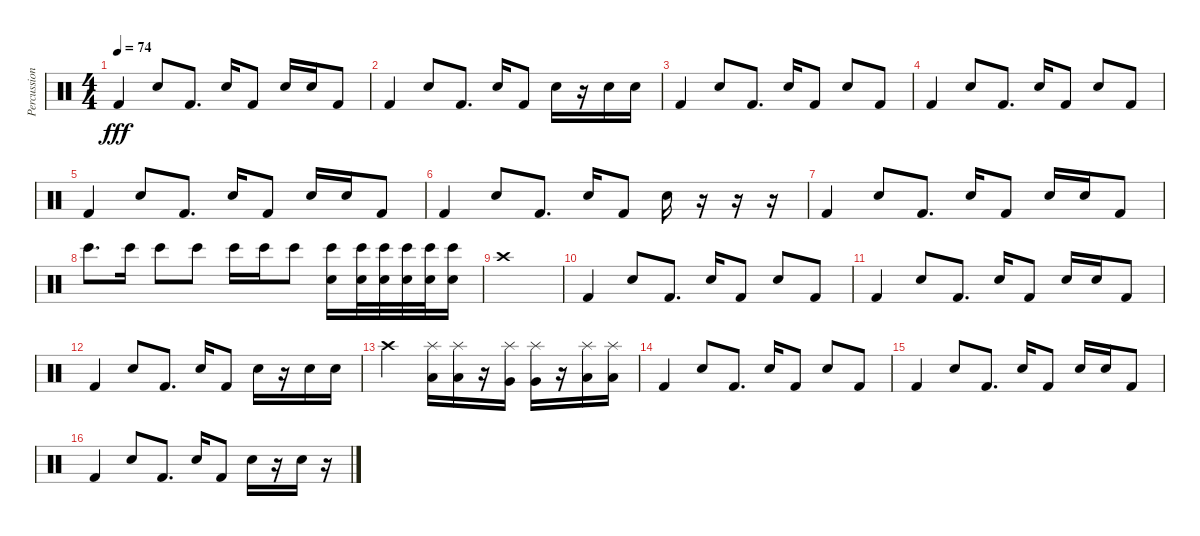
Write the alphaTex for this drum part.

\track ("Percussion" "Percussion") {instrument percussion}
\staff {score}
\articulation defaults
\ts (4 4)
\tempo 74
\clef neutral
\ks c "Kick (hit) 2".4{dy fff} "Electric Snare (hit)".8 "Kick (hit) 2".8{d} "Electric Snare (hit)".16 "Kick (hit) 2".8 "Electric Snare (hit)".16 "Electric Snare (hit)".16 "Kick (hit) 2".8
|
"Kick (hit) 2".4 "Electric Snare (hit)".8 "Kick (hit) 2".8{d} "Electric Snare (hit)".16 "Kick (hit) 2".8 "Electric Snare (hit)".16 r.16 "Electric Snare (hit)".16 "Electric Snare (hit)".16 |
"Kick (hit) 2".4 "Electric Snare (hit)".8 "Kick (hit) 2".8{d} "Electric Snare (hit)".16 "Kick (hit) 2".8 "Electric Snare (hit)".8 "Kick (hit) 2".8 |
"Kick (hit) 2".4 "Electric Snare (hit)".8 "Kick (hit) 2".8{d} "Electric Snare (hit)".16 "Kick (hit) 2".8 "Electric Snare (hit)".8 "Kick (hit) 2".8 |
"Kick (hit) 2".4 "Electric Snare (hit)".8 "Kick (hit) 2".8{d} "Electric Snare (hit)".16 "Kick (hit) 2".8 "Electric Snare (hit)".16 "Electric Snare (hit)".16 "Kick (hit) 2".8 |
"Kick (hit) 2".4 "Electric Snare (hit)".8 "Kick (hit) 2".8{d} "Electric Snare (hit)".16 "Kick (hit) 2".8 "Electric Snare (hit)".16 r.16 r.16 r.16 |
"Kick (hit) 2".4 "Electric Snare (hit)".8 "Kick (hit) 2".8{d} "Electric Snare (hit)".16 "Kick (hit) 2".8 "Electric Snare (hit)".16 "Electric Snare (hit)".16 "Kick (hit) 2".8 |
"Bongo High (hit)".8{d} "Bongo High (hit)".16 "Bongo High (hit)".8 "Bongo High (hit)".8 "Bongo High (hit)".16 "Bongo High (hit)".16 "Bongo High (hit)".8 ("Electric Snare (hit)" "Bongo High (hit)").16 ("Electric Snare (hit)" "Bongo High (hit)").32 ("Electric Snare (hit)" "Bongo High (hit)").32 ("Electric Snare (hit)" "Bongo High (hit)").32 ("Electric Snare (hit)" "Bongo High (hit)").32 ("Electric Snare (hit)" "Bongo High (hit)").16 |
"Crash high (hit)".1 |
"Kick (hit) 2".4 "Electric Snare (hit)".8 "Kick (hit) 2".8{d} "Electric Snare (hit)".16 "Kick (hit) 2".8 "Electric Snare (hit)".8 "Kick (hit) 2".8 |
"Kick (hit) 2".4 "Electric Snare (hit)".8 "Kick (hit) 2".8{d} "Electric Snare (hit)".16 "Kick (hit) 2".8 "Electric Snare (hit)".16 "Electric Snare (hit)".16 "Kick (hit) 2".8 |
"Kick (hit) 2".4 "Electric Snare (hit)".8 "Kick (hit) 2".8{d} "Electric Snare (hit)".16 "Kick (hit) 2".8 "Electric Snare (hit)".16 r.16 "Electric Snare (hit)".16 "Electric Snare (hit)".16 |
"Crash high (hit)".2 ("Splash (hit)" "Low Tom (hit)").16 ("Splash (hit)" "Low Tom (hit)").16 r.16 ("Splash (hit)" "Very Low Tom (hit)").16 ("Splash (hit)" "Very Low Tom (hit)").16 r.16 ("Splash (hit)" "Low Floor Tom (hit)").16 ("Splash (hit)" "Low Floor Tom (hit)").16 |
"Kick (hit) 2".4 "Electric Snare (hit)".8 "Kick (hit) 2".8{d} "Electric Snare (hit)".16 "Kick (hit) 2".8 "Electric Snare (hit)".8 "Kick (hit) 2".8 |
"Kick (hit) 2".4 "Electric Snare (hit)".8 "Kick (hit) 2".8{d} "Electric Snare (hit)".16 "Kick (hit) 2".8 "Electric Snare (hit)".16 "Electric Snare (hit)".16 "Kick (hit) 2".8 |
"Kick (hit) 2".4 "Electric Snare (hit)".8 "Kick (hit) 2".8{d} "Electric Snare (hit)".16 "Kick (hit) 2".8 "Electric Snare (hit)".16 r.16 "Electric Snare (hit)".16 r.16
